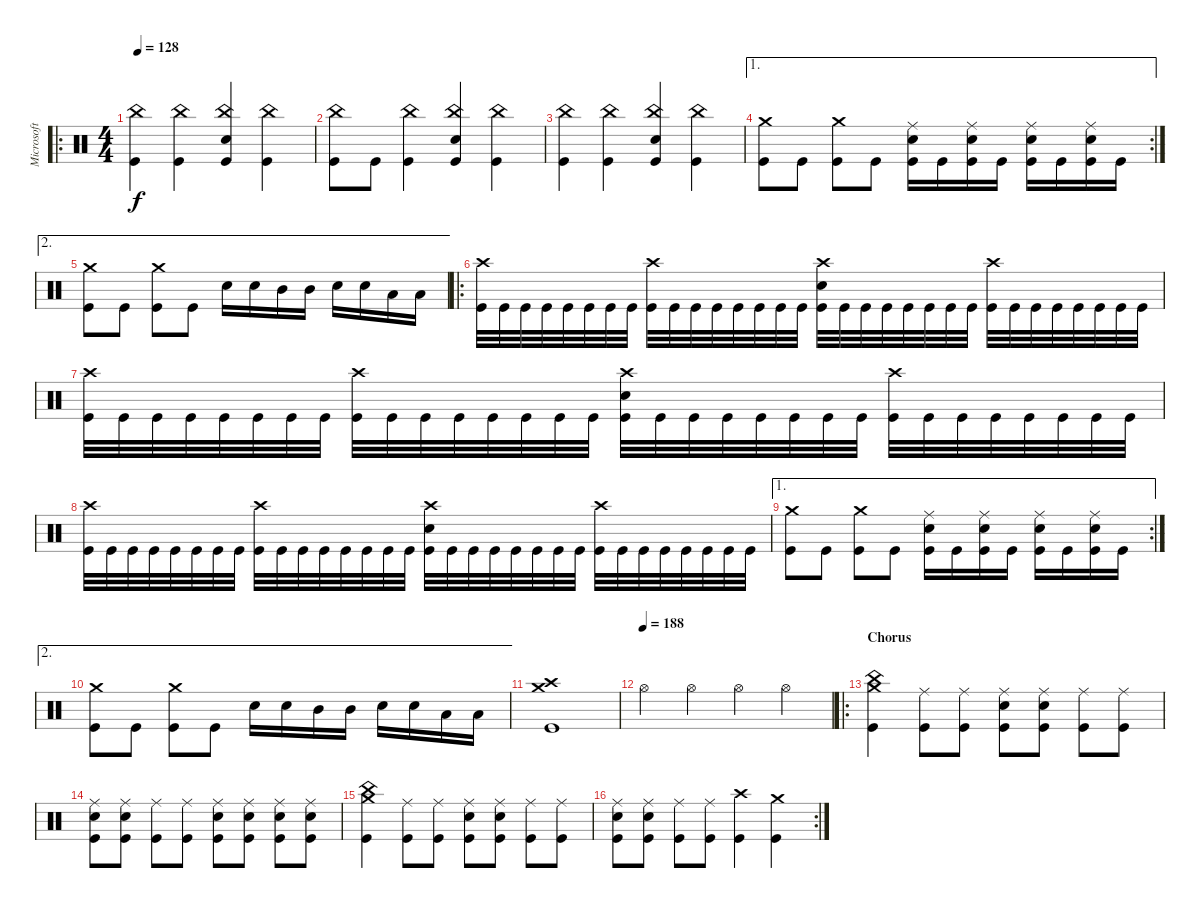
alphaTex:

\track ("Microsoft S.A.M." "Microsoft ") {instrument percussion}
\staff {score}
\articulation defaults
\ro
\ts (4 4)
\tempo 128
\clef neutral
\ks c
("Kick (hit)" "China (hit)").4{dy f} ("Kick (hit)" "China (hit)").4 ("Kick (hit)" "China (hit)" "Snare (hit) 2").4 ("Kick (hit)" "China (hit)").4 |
("Kick (hit)" "China (hit)").8 "Kick (hit)".8 ("Kick (hit)" "China (hit)").4 ("Kick (hit)" "China (hit)" "Snare (hit) 2").4 ("Kick (hit)" "China (hit)").4 |
("Kick (hit)" "China (hit)").4 ("Kick (hit)" "China (hit)").4 ("Kick (hit)" "China (hit)" "Snare (hit) 2").4 ("Kick (hit)" "China (hit)").4 |
\ae 1
\rc 2
("Kick (hit)" "Crash medium (hit)").8 "Kick (hit)".8 ("Kick (hit)" "Crash medium (hit)").8 "Kick (hit)".8 ("Kick (hit)" "Ride (middle)" "Snare (hit) 2").16 "Kick (hit)".16 ("Kick (hit)" "Ride (middle)" "Snare (hit) 2").16 "Kick (hit)".16 ("Kick (hit)" "Ride (middle)" "Snare (hit) 2").16 "Kick (hit)".16 ("Kick (hit)" "Ride (middle)" "Snare (hit) 2").16 "Kick (hit)".16 |
\ae 2
("Kick (hit)" "Crash medium (hit)").8 "Kick (hit)".8 ("Kick (hit)" "Crash medium (hit)").8 "Kick (hit)".8 "Snare (hit) 2".16 "Snare (hit) 2".16 "Mid Tom (hit)".16 "Mid Tom (hit)".16 "Snare (hit) 2".16 "Snare (hit) 2".16 "Low Tom (hit)".16 "Low Tom (hit)".16 |
\ro
("Kick (hit)" "Crash high (hit)").32 "Kick (hit)".32 "Kick (hit)".32 "Kick (hit)".32 "Kick (hit)".32 "Kick (hit)".32 "Kick (hit)".32 "Kick (hit)".32 ("Kick (hit)" "Crash high (hit)").32 "Kick (hit)".32 "Kick (hit)".32 "Kick (hit)".32 "Kick (hit)".32 "Kick (hit)".32 "Kick (hit)".32 "Kick (hit)".32 ("Kick (hit)" "Crash high (hit)" "Snare (hit) 2").32 "Kick (hit)".32 "Kick (hit)".32 "Kick (hit)".32 "Kick (hit)".32 "Kick (hit)".32 "Kick (hit)".32 "Kick (hit)".32 ("Kick (hit)" "Crash high (hit)").32 "Kick (hit)".32 "Kick (hit)".32 "Kick (hit)".32 "Kick (hit)".32 "Kick (hit)".32 "Kick (hit)".32 "Kick (hit)".32 |
("Kick (hit)" "Crash high (hit)").32 "Kick (hit)".32 "Kick (hit)".32 "Kick (hit)".32 "Kick (hit)".32 "Kick (hit)".32 "Kick (hit)".32 "Kick (hit)".32 ("Kick (hit)" "Crash high (hit)").32 "Kick (hit)".32 "Kick (hit)".32 "Kick (hit)".32 "Kick (hit)".32 "Kick (hit)".32 "Kick (hit)".32 "Kick (hit)".32 ("Kick (hit)" "Crash high (hit)" "Snare (hit) 2").32 "Kick (hit)".32 "Kick (hit)".32 "Kick (hit)".32 "Kick (hit)".32 "Kick (hit)".32 "Kick (hit)".32 "Kick (hit)".32 ("Kick (hit)" "Crash high (hit)").32 "Kick (hit)".32 "Kick (hit)".32 "Kick (hit)".32 "Kick (hit)".32 "Kick (hit)".32 "Kick (hit)".32 "Kick (hit)".32 |
("Kick (hit)" "Crash high (hit)").32 "Kick (hit)".32 "Kick (hit)".32 "Kick (hit)".32 "Kick (hit)".32 "Kick (hit)".32 "Kick (hit)".32 "Kick (hit)".32 ("Kick (hit)" "Crash high (hit)").32 "Kick (hit)".32 "Kick (hit)".32 "Kick (hit)".32 "Kick (hit)".32 "Kick (hit)".32 "Kick (hit)".32 "Kick (hit)".32 ("Kick (hit)" "Crash high (hit)" "Snare (hit) 2").32 "Kick (hit)".32 "Kick (hit)".32 "Kick (hit)".32 "Kick (hit)".32 "Kick (hit)".32 "Kick (hit)".32 "Kick (hit)".32 ("Kick (hit)" "Crash high (hit)").32 "Kick (hit)".32 "Kick (hit)".32 "Kick (hit)".32 "Kick (hit)".32 "Kick (hit)".32 "Kick (hit)".32 "Kick (hit)".32 |
\ae 1
\rc 2
("Kick (hit)" "Crash medium (hit)").8 "Kick (hit)".8 ("Kick (hit)" "Crash medium (hit)").8 "Kick (hit)".8 ("Kick (hit)" "Ride (middle)" "Snare (hit) 2").16 "Kick (hit)".16 ("Kick (hit)" "Ride (middle)" "Snare (hit) 2").16 "Kick (hit)".16 ("Kick (hit)" "Ride (middle)" "Snare (hit) 2").16 "Kick (hit)".16 ("Kick (hit)" "Ride (middle)" "Snare (hit) 2").16 "Kick (hit)".16 |
\ae 2
("Kick (hit)" "Crash medium (hit)").8 "Kick (hit)".8 ("Kick (hit)" "Crash medium (hit)").8 "Kick (hit)".8 "Snare (hit) 2".16 "Snare (hit) 2".16 "Mid Tom (hit)".16 "Mid Tom (hit)".16 "Snare (hit) 2".16 "Snare (hit) 2".16 "Low Tom (hit)".16 "Low Tom (hit)".16 |
("Kick (hit)" "Crash medium (hit)" "Crash high (hit)").1 |
\tempo (188)
"Hi-Hat (open)".4 "Hi-Hat (open)".4 "Hi-Hat (open)".4 "Hi-Hat (open)".4 |
\ro
\section ("" "Chorus")
("Kick (hit)" "China (hit)" "Crash medium (hit)").4 ("Kick (hit)" "Ride (middle)").8 ("Kick (hit)" "Ride (middle)").8 ("Kick (hit)" "Ride (middle)" "Snare (hit) 2").8 ("Kick (hit)" "Ride (middle)" "Snare (hit) 2").8 ("Kick (hit)" "Ride (middle)").8 ("Kick (hit)" "Ride (middle)").8 |
("Kick (hit)" "Ride (middle)" "Snare (hit) 2").8 ("Kick (hit)" "Ride (middle)" "Snare (hit) 2").8 ("Kick (hit)" "Ride (middle)").8 ("Kick (hit)" "Ride (middle)").8 ("Kick (hit)" "Ride (middle)" "Snare (hit) 2").8 ("Kick (hit)" "Ride (middle)" "Snare (hit) 2").8 ("Kick (hit)" "Ride (middle)" "Snare (hit) 2").8 ("Kick (hit)" "Ride (middle)" "Snare (hit) 2").8 |
("Kick (hit)" "China (hit)" "Crash medium (hit)").4 ("Kick (hit)" "Ride (middle)").8 ("Kick (hit)" "Ride (middle)").8 ("Kick (hit)" "Ride (middle)" "Snare (hit) 2").8 ("Kick (hit)" "Ride (middle)" "Snare (hit) 2").8 ("Kick (hit)" "Ride (middle)").8 ("Kick (hit)" "Ride (middle)").8 |
\rc 2
("Kick (hit)" "Ride (middle)" "Snare (hit) 2").8 ("Kick (hit)" "Ride (middle)" "Snare (hit) 2").8 ("Kick (hit)" "Ride (middle)").8 ("Kick (hit)" "Ride (middle)").8 ("Kick (hit)" "Crash high (hit)").4 ("Kick (hit)" "Crash medium (hit)").4
